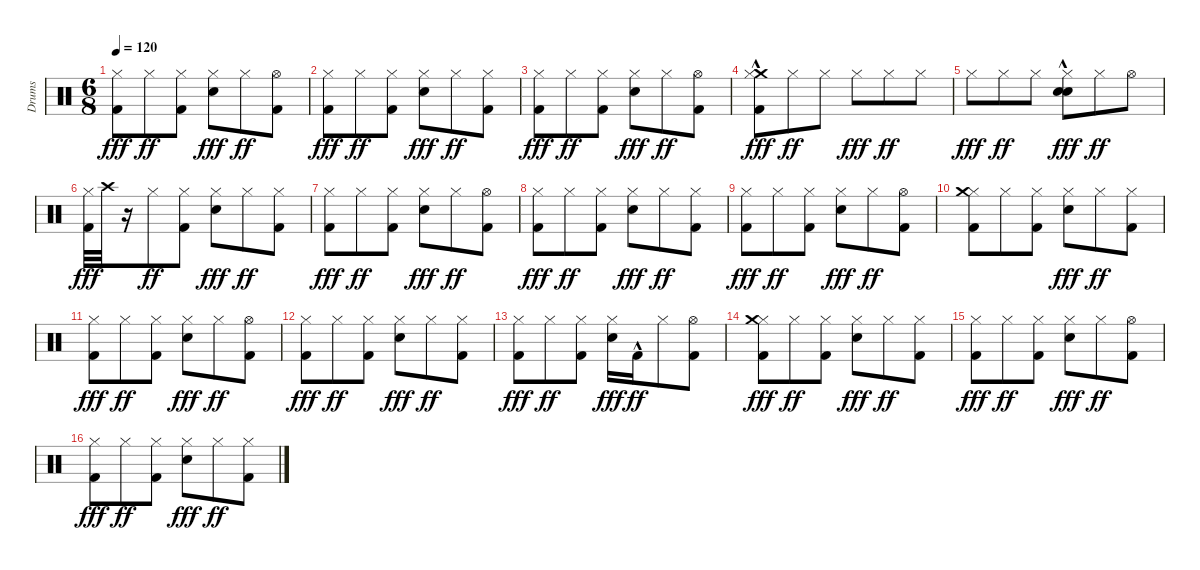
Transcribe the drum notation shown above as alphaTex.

\track ("Drums" "Drums") {instrument percussion}
\staff {score}
\articulation defaults
\ts (6 8)
\tempo 120
\clef neutral
\ks c
("Hi-Hat (closed)" "Kick (hit) 2").8{dy fff} "Hi-Hat (closed)".8{dy ff} ("Hi-Hat (closed)" "Kick (hit) 2").8 ("Hi-Hat (closed)" "Snare (hit) 2").8{dy fff} "Hi-Hat (closed)".8{dy ff} ("Hi-Hat (open)" "Kick (hit) 2").8 |
("Hi-Hat (closed)" "Kick (hit) 2").8{dy fff} "Hi-Hat (closed)".8{dy ff} ("Hi-Hat (closed)" "Kick (hit) 2").8 ("Hi-Hat (closed)" "Snare (hit) 2").8{dy fff} "Hi-Hat (closed)".8{dy ff} ("Hi-Hat (closed)" "Kick (hit) 2").8 |
("Hi-Hat (closed)" "Kick (hit) 2").8{dy fff} "Hi-Hat (closed)".8{dy ff} ("Hi-Hat (closed)" "Kick (hit) 2").8 ("Hi-Hat (closed)" "Snare (hit) 2").8{dy fff} "Hi-Hat (closed)".8{dy ff} ("Hi-Hat (open)" "Kick (hit) 2").8 |
("Crash medium (hit)" "Hi-Hat (closed)" "Kick (hit) 2"{hac}).8{dy fff} "Hi-Hat (closed)".8{dy ff} "Hi-Hat (closed)".8 "Hi-Hat (closed)".8{dy fff} "Hi-Hat (closed)".8{dy ff} "Hi-Hat (closed)".8 |
"Hi-Hat (closed)".8{dy fff} "Hi-Hat (closed)".8{dy ff} "Hi-Hat (closed)".8 ("Snare (hit) 2"{hac} "Hi-Hat (closed)" "Electric Snare (hit)"{hac}).8{dy fff} "Hi-Hat (closed)".8{dy ff} "Hi-Hat (open)".8 |
("Hi-Hat (closed)" "Kick (hit) 2").32{dy fff} "Crash high (hit)".32 r.16 "Hi-Hat (closed)".8{dy ff} ("Hi-Hat (closed)" "Kick (hit) 2").8 ("Hi-Hat (closed)" "Snare (hit) 2").8{dy fff} "Hi-Hat (closed)".8{dy ff} ("Hi-Hat (closed)" "Kick (hit) 2").8 |
("Hi-Hat (closed)" "Kick (hit) 2").8{dy fff} "Hi-Hat (closed)".8{dy ff} ("Hi-Hat (closed)" "Kick (hit) 2").8 ("Hi-Hat (closed)" "Snare (hit) 2").8{dy fff} "Hi-Hat (closed)".8{dy ff} ("Hi-Hat (open)" "Kick (hit) 2").8 |
("Hi-Hat (closed)" "Kick (hit) 2").8{dy fff} "Hi-Hat (closed)".8{dy ff} ("Hi-Hat (closed)" "Kick (hit) 2").8 ("Hi-Hat (closed)" "Snare (hit) 2").8{dy fff} "Hi-Hat (closed)".8{dy ff} ("Hi-Hat (closed)" "Kick (hit) 2").8 |
("Hi-Hat (closed)" "Kick (hit) 2").8{dy fff} "Hi-Hat (closed)".8{dy ff} ("Hi-Hat (closed)" "Kick (hit) 2").8 ("Hi-Hat (closed)" "Snare (hit) 2").8{dy fff} "Hi-Hat (closed)".8{dy ff} ("Hi-Hat (open)" "Kick (hit) 2").8 |
("Hi-Hat (closed)" "Kick (hit) 2" "Crash medium (hit)").8 "Hi-Hat (closed)".8 ("Hi-Hat (closed)" "Kick (hit) 2").8 ("Hi-Hat (closed)" "Snare (hit) 2").8{dy fff} "Hi-Hat (closed)".8{dy ff} ("Hi-Hat (closed)" "Kick (hit) 2").8 |
("Hi-Hat (closed)" "Kick (hit) 2").8{dy fff} "Hi-Hat (closed)".8{dy ff} ("Hi-Hat (closed)" "Kick (hit) 2").8 ("Hi-Hat (closed)" "Snare (hit) 2").8{dy fff} "Hi-Hat (closed)".8{dy ff} ("Hi-Hat (open)" "Kick (hit) 2").8 |
("Hi-Hat (closed)" "Kick (hit) 2").8{dy fff} "Hi-Hat (closed)".8{dy ff} ("Hi-Hat (closed)" "Kick (hit) 2").8 ("Hi-Hat (closed)" "Snare (hit) 2").8{dy fff} "Hi-Hat (closed)".8{dy ff} ("Hi-Hat (closed)" "Kick (hit) 2").8 |
("Hi-Hat (closed)" "Kick (hit) 2").8{dy fff} "Hi-Hat (closed)".8{dy ff} ("Hi-Hat (closed)" "Kick (hit) 2").8 ("Hi-Hat (closed)" "Snare (hit) 2").16{dy fff} "Kick (hit) 2"{hac}.16{dy ff} "Hi-Hat (closed)".8 ("Hi-Hat (open)" "Kick (hit) 2").8 |
("Hi-Hat (closed)" "Kick (hit) 2" "Crash medium (hit)").8{dy fff} "Hi-Hat (closed)".8{dy ff} ("Hi-Hat (closed)" "Kick (hit) 2").8 ("Hi-Hat (closed)" "Snare (hit) 2").8{dy fff} "Hi-Hat (closed)".8{dy ff} ("Hi-Hat (closed)" "Kick (hit) 2").8 |
("Hi-Hat (closed)" "Kick (hit) 2").8{dy fff} "Hi-Hat (closed)".8{dy ff} ("Hi-Hat (closed)" "Kick (hit) 2").8 ("Hi-Hat (closed)" "Snare (hit) 2").8{dy fff} "Hi-Hat (closed)".8{dy ff} ("Hi-Hat (open)" "Kick (hit) 2").8 |
("Hi-Hat (closed)" "Kick (hit) 2").8{dy fff} "Hi-Hat (closed)".8{dy ff} ("Hi-Hat (closed)" "Kick (hit) 2").8 ("Hi-Hat (closed)" "Snare (hit) 2").8{dy fff} "Hi-Hat (closed)".8{dy ff} ("Hi-Hat (closed)" "Kick (hit) 2").8
